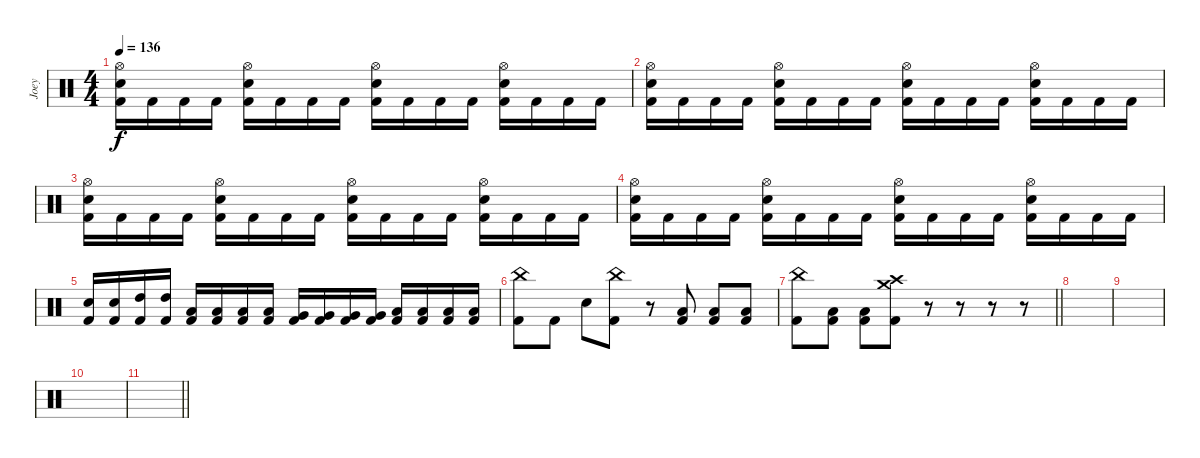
\track ("Joey" "Joey") {instrument percussion}
\staff {score}
\articulation defaults
\ts (4 4)
\tempo 136
\clef neutral
\ks c
("Hi-Hat (open)" "Snare (hit) 2" "Kick (hit) 2").16{dy f} "Kick (hit) 2".16 "Kick (hit) 2".16 "Kick (hit) 2".16 ("Hi-Hat (open)" "Snare (hit) 2" "Kick (hit) 2").16 "Kick (hit) 2".16 "Kick (hit) 2".16 "Kick (hit) 2".16 ("Hi-Hat (open)" "Snare (hit) 2" "Kick (hit) 2").16 "Kick (hit) 2".16 "Kick (hit) 2".16 "Kick (hit) 2".16 ("Hi-Hat (open)" "Snare (hit) 2" "Kick (hit) 2").16 "Kick (hit) 2".16 "Kick (hit) 2".16 "Kick (hit) 2".16 |
("Hi-Hat (open)" "Snare (hit) 2" "Kick (hit) 2").16 "Kick (hit) 2".16 "Kick (hit) 2".16 "Kick (hit) 2".16 ("Hi-Hat (open)" "Snare (hit) 2" "Kick (hit) 2").16 "Kick (hit) 2".16 "Kick (hit) 2".16 "Kick (hit) 2".16 ("Hi-Hat (open)" "Snare (hit) 2" "Kick (hit) 2").16 "Kick (hit) 2".16 "Kick (hit) 2".16 "Kick (hit) 2".16 ("Hi-Hat (open)" "Snare (hit) 2" "Kick (hit) 2").16 "Kick (hit) 2".16 "Kick (hit) 2".16 "Kick (hit) 2".16 |
("Hi-Hat (open)" "Snare (hit) 2" "Kick (hit) 2").16 "Kick (hit) 2".16 "Kick (hit) 2".16 "Kick (hit) 2".16 ("Hi-Hat (open)" "Snare (hit) 2" "Kick (hit) 2").16 "Kick (hit) 2".16 "Kick (hit) 2".16 "Kick (hit) 2".16 ("Hi-Hat (open)" "Snare (hit) 2" "Kick (hit) 2").16 "Kick (hit) 2".16 "Kick (hit) 2".16 "Kick (hit) 2".16 ("Hi-Hat (open)" "Snare (hit) 2" "Kick (hit) 2").16 "Kick (hit) 2".16 "Kick (hit) 2".16 "Kick (hit) 2".16 |
("Hi-Hat (open)" "Snare (hit) 2" "Kick (hit) 2").16 "Kick (hit) 2".16 "Kick (hit) 2".16 "Kick (hit) 2".16 ("Hi-Hat (open)" "Snare (hit) 2" "Kick (hit) 2").16 "Kick (hit) 2".16 "Kick (hit) 2".16 "Kick (hit) 2".16 ("Hi-Hat (open)" "Snare (hit) 2" "Kick (hit) 2").16 "Kick (hit) 2".16 "Kick (hit) 2".16 "Kick (hit) 2".16 ("Hi-Hat (open)" "Snare (hit) 2" "Kick (hit) 2").16 "Kick (hit) 2".16 "Kick (hit) 2".16 "Kick (hit) 2".16 |
("Snare (hit) 2" "Kick (hit) 2").16 ("Snare (hit) 2" "Kick (hit) 2").16 ("High Tom (hit)" "Kick (hit) 2").16 ("High Tom (hit)" "Kick (hit) 2").16 ("Low Tom (hit)" "Kick (hit) 2").16 ("Low Tom (hit)" "Kick (hit) 2").16 ("Low Tom (hit)" "Kick (hit) 2").16 ("Low Tom (hit)" "Kick (hit) 2").16 ("Very Low Tom (hit)" "Kick (hit) 2").16 ("Very Low Tom (hit)" "Kick (hit) 2").16 ("Very Low Tom (hit)" "Kick (hit) 2").16 ("Very Low Tom (hit)" "Kick (hit) 2").16 ("Low Floor Tom (hit)" "Kick (hit) 2").16 ("Low Floor Tom (hit)" "Kick (hit) 2").16 ("Low Floor Tom (hit)" "Kick (hit) 2").16 ("Low Floor Tom (hit)" "Kick (hit) 2").16 |
("China (hit)" "Kick (hit) 2").8 "Kick (hit) 2".8 "Snare (hit) 2".8 ("China (hit)" "Kick (hit) 2").8 r.8 ("Low Floor Tom (hit)" "Kick (hit) 2").8 ("Low Floor Tom (hit)" "Kick (hit) 2").8 ("Low Floor Tom (hit)" "Kick (hit) 2").8 |
\barLineRight lightlight
("China (hit)" "Kick (hit) 2").8 ("Low Floor Tom (hit)" "Kick (hit) 2").8 ("Low Floor Tom (hit)" "Kick (hit) 2").8 ("Crash medium (hit)" "Crash high (hit)" "Kick (hit) 2").8 r.8 r.8 r.8 r.8 |
|
|
|
\barLineRight lightlight
